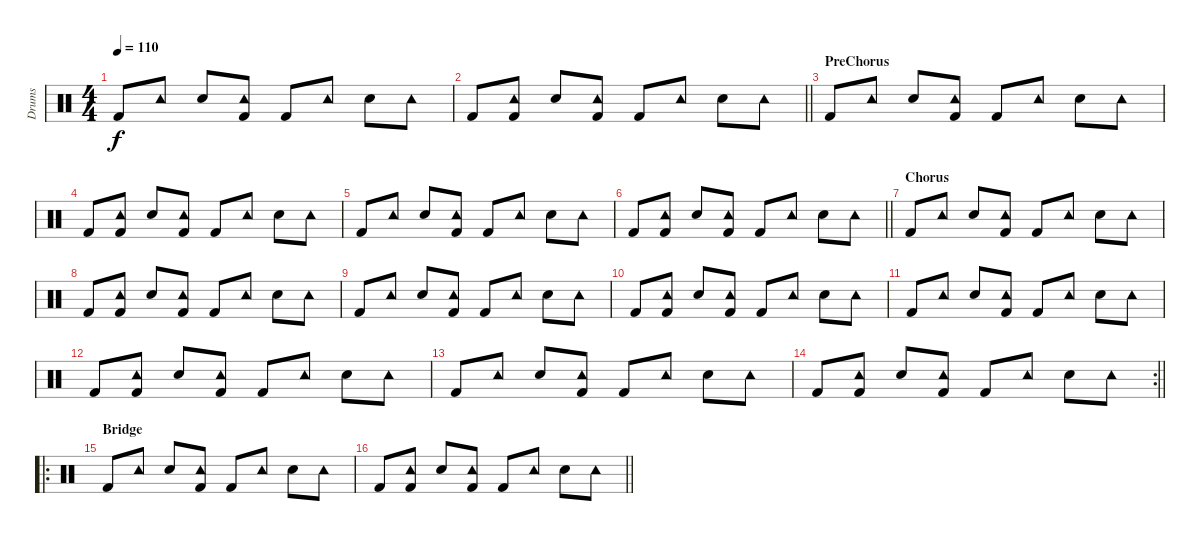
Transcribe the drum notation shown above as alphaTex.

\track ("Drums" "Drums") {instrument percussion}
\staff {score}
\articulation defaults
\ts (4 4)
\tempo 110
\clef neutral
\ks c "Kick (hit) 2".8{dy f} "Tambourine (hit)".8 "Snare (hit) 2".8
("Tambourine (hit)" "Kick (hit) 2").8 "Kick (hit) 2".8 "Tambourine (hit)".8 "Snare (hit) 2".8 "Tambourine (hit)".8 |
\barLineRight lightlight "Kick (hit) 2".8
("Tambourine (hit)" "Kick (hit) 2").8 "Snare (hit) 2".8 ("Tambourine (hit)" "Kick (hit) 2").8 "Kick (hit) 2".8 "Tambourine (hit)".8 "Snare (hit) 2".8 "Tambourine (hit)".8 |
\section ("" "PreChorus")
"Kick (hit) 2".8 "Tambourine (hit)".8 "Snare (hit) 2".8 ("Tambourine (hit)" "Kick (hit) 2").8 "Kick (hit) 2".8 "Tambourine (hit)".8 "Snare (hit) 2".8 "Tambourine (hit)".8 |
"Kick (hit) 2".8 ("Tambourine (hit)" "Kick (hit) 2").8 "Snare (hit) 2".8 ("Tambourine (hit)" "Kick (hit) 2").8 "Kick (hit) 2".8 "Tambourine (hit)".8 "Snare (hit) 2".8 "Tambourine (hit)".8 |
"Kick (hit) 2".8 "Tambourine (hit)".8 "Snare (hit) 2".8 ("Tambourine (hit)" "Kick (hit) 2").8 "Kick (hit) 2".8 "Tambourine (hit)".8 "Snare (hit) 2".8 "Tambourine (hit)".8 |
\barLineRight lightlight "Kick (hit) 2".8
("Tambourine (hit)" "Kick (hit) 2").8 "Snare (hit) 2".8 ("Tambourine (hit)" "Kick (hit) 2").8 "Kick (hit) 2".8 "Tambourine (hit)".8 "Snare (hit) 2".8 "Tambourine (hit)".8 |
\section ("" "Chorus")
"Kick (hit) 2".8 "Tambourine (hit)".8 "Snare (hit) 2".8 ("Tambourine (hit)" "Kick (hit) 2").8 "Kick (hit) 2".8 "Tambourine (hit)".8 "Snare (hit) 2".8 "Tambourine (hit)".8 |
"Kick (hit) 2".8 ("Tambourine (hit)" "Kick (hit) 2").8 "Snare (hit) 2".8 ("Tambourine (hit)" "Kick (hit) 2").8 "Kick (hit) 2".8 "Tambourine (hit)".8 "Snare (hit) 2".8 "Tambourine (hit)".8 |
"Kick (hit) 2".8 "Tambourine (hit)".8 "Snare (hit) 2".8 ("Tambourine (hit)" "Kick (hit) 2").8 "Kick (hit) 2".8 "Tambourine (hit)".8 "Snare (hit) 2".8 "Tambourine (hit)".8 |
"Kick (hit) 2".8 ("Tambourine (hit)" "Kick (hit) 2").8 "Snare (hit) 2".8 ("Tambourine (hit)" "Kick (hit) 2").8 "Kick (hit) 2".8 "Tambourine (hit)".8 "Snare (hit) 2".8 "Tambourine (hit)".8 |
"Kick (hit) 2".8 "Tambourine (hit)".8 "Snare (hit) 2".8 ("Tambourine (hit)" "Kick (hit) 2").8 "Kick (hit) 2".8 "Tambourine (hit)".8 "Snare (hit) 2".8 "Tambourine (hit)".8 |
"Kick (hit) 2".8 ("Tambourine (hit)" "Kick (hit) 2").8 "Snare (hit) 2".8 ("Tambourine (hit)" "Kick (hit) 2").8 "Kick (hit) 2".8 "Tambourine (hit)".8 "Snare (hit) 2".8 "Tambourine (hit)".8 |
"Kick (hit) 2".8 "Tambourine (hit)".8 "Snare (hit) 2".8 ("Tambourine (hit)" "Kick (hit) 2").8 "Kick (hit) 2".8 "Tambourine (hit)".8 "Snare (hit) 2".8 "Tambourine (hit)".8 |
\rc 2
\barLineRight lightlight "Kick (hit) 2".8
("Tambourine (hit)" "Kick (hit) 2").8 "Snare (hit) 2".8 ("Tambourine (hit)" "Kick (hit) 2").8 "Kick (hit) 2".8 "Tambourine (hit)".8 "Snare (hit) 2".8 "Tambourine (hit)".8 |
\ro
\section ("" "Bridge")
"Kick (hit) 2".8 "Tambourine (hit)".8 "Snare (hit) 2".8 ("Tambourine (hit)" "Kick (hit) 2").8 "Kick (hit) 2".8 "Tambourine (hit)".8 "Snare (hit) 2".8 "Tambourine (hit)".8 |
\barLineRight lightlight "Kick (hit) 2".8
("Tambourine (hit)" "Kick (hit) 2").8 "Snare (hit) 2".8 ("Tambourine (hit)" "Kick (hit) 2").8 "Kick (hit) 2".8 "Tambourine (hit)".8 "Snare (hit) 2".8 "Tambourine (hit)".8
